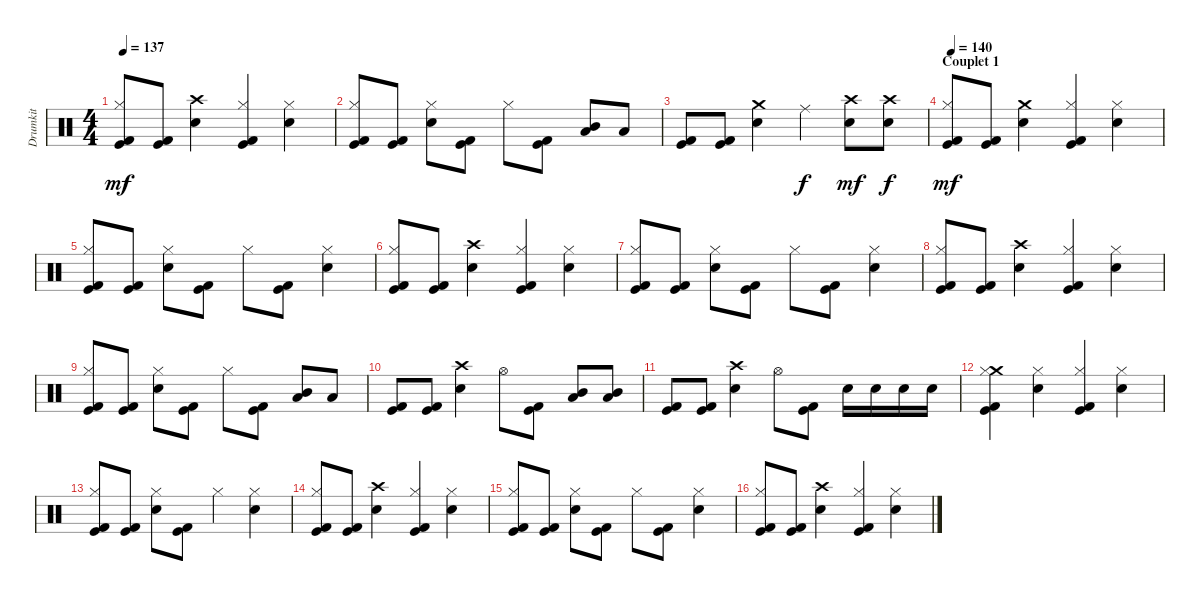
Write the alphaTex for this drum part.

\track ("Drumkit" "Drumkit") {instrument percussion}
\staff {score}
\articulation defaults
\ts (4 4)
\tempo 137
\clef neutral
\ks c
("Kick (hit) 2" "Hi-Hat (closed)" "Kick (hit)").8{dy mf} ("Kick (hit) 2" "Kick (hit)").8 ("Crash high (hit)" "Snare (hit) 2").4 ("Kick (hit) 2" "Hi-Hat (closed)" "Kick (hit)").4 ("Hi-Hat (closed)" "Snare (hit) 2").4 |
("Kick (hit) 2" "Hi-Hat (closed)" "Kick (hit)").8 ("Kick (hit) 2" "Kick (hit)").8 ("Hi-Hat (closed)" "Snare (hit) 2").8 ("Kick (hit) 2" "Kick (hit)").8 "Hi-Hat (closed)".8 ("Kick (hit) 2" "Kick (hit)").8 ("Mid Tom (hit)" "Low Tom (hit)").8 "Low Tom (hit)".8 |
("Kick (hit) 2" "Kick (hit)").8 ("Kick (hit) 2" "Kick (hit)").8 ("Crash medium (hit)" "Snare (hit) 2").4 "Ride (middle)".4{dy f} ("Crash high (hit)" "Snare (hit) 2").8{dy mf} ("Crash high (hit)" "Snare (hit) 2").8{dy f} |
\section ("" "Couplet 1")
\tempo 140
("Kick (hit) 2" "Hi-Hat (closed)" "Kick (hit)").8{dy mf} ("Kick (hit) 2" "Kick (hit)").8 ("Crash medium (hit)" "Snare (hit) 2").4 ("Kick (hit) 2" "Hi-Hat (closed)" "Kick (hit)").4 ("Hi-Hat (closed)" "Snare (hit) 2").4 |
("Kick (hit) 2" "Hi-Hat (closed)" "Kick (hit)").8 ("Kick (hit) 2" "Kick (hit)").8 ("Hi-Hat (closed)" "Snare (hit) 2").8 ("Kick (hit) 2" "Kick (hit)").8 "Hi-Hat (closed)".8 ("Kick (hit) 2" "Kick (hit)").8 ("Hi-Hat (closed)" "Snare (hit) 2").4 |
("Kick (hit) 2" "Hi-Hat (closed)" "Kick (hit)").8 ("Kick (hit) 2" "Kick (hit)").8 ("Crash high (hit)" "Snare (hit) 2").4 ("Kick (hit) 2" "Hi-Hat (closed)" "Kick (hit)").4 ("Hi-Hat (closed)" "Snare (hit) 2").4 |
("Kick (hit) 2" "Hi-Hat (closed)" "Kick (hit)").8 ("Kick (hit) 2" "Kick (hit)").8 ("Hi-Hat (closed)" "Snare (hit) 2").8 ("Kick (hit) 2" "Kick (hit)").8 "Hi-Hat (closed)".8 ("Kick (hit) 2" "Kick (hit)").8 ("Hi-Hat (closed)" "Snare (hit) 2").4 |
("Kick (hit) 2" "Hi-Hat (closed)" "Kick (hit)").8 ("Kick (hit) 2" "Kick (hit)").8 ("Crash high (hit)" "Snare (hit) 2").4 ("Kick (hit) 2" "Hi-Hat (closed)" "Kick (hit)").4 ("Hi-Hat (closed)" "Snare (hit) 2").4 |
("Kick (hit) 2" "Hi-Hat (closed)" "Kick (hit)").8 ("Kick (hit) 2" "Kick (hit)").8 ("Hi-Hat (closed)" "Snare (hit) 2").8 ("Kick (hit) 2" "Kick (hit)").8 "Hi-Hat (closed)".8 ("Kick (hit) 2" "Kick (hit)").8 ("Mid Tom (hit)" "Low Tom (hit)").8 "Low Tom (hit)".8 |
("Kick (hit) 2" "Kick (hit)").8 ("Kick (hit) 2" "Kick (hit)").8 ("Crash high (hit)" "Snare (hit) 2").4 "Hi-Hat (open)".8 ("Kick (hit) 2" "Kick (hit)").8 ("Mid Tom (hit)" "Low Tom (hit)").8 ("Mid Tom (hit)" "Low Tom (hit)").8 |
("Kick (hit) 2" "Kick (hit)").8 ("Kick (hit) 2" "Kick (hit)").8 ("Crash high (hit)" "Snare (hit) 2").4 "Hi-Hat (open)".8 ("Kick (hit) 2" "Kick (hit)").8 "Snare (hit) 2".16 "Snare (hit) 2".16 "Snare (hit) 2".16 "Snare (hit) 2".16 |
("Crash medium (hit)" "Hi-Hat (closed)" "Kick (hit) 2" "Kick (hit)").4 ("Hi-Hat (closed)" "Snare (hit) 2").4 ("Kick (hit) 2" "Hi-Hat (closed)" "Kick (hit)").4 ("Hi-Hat (closed)" "Snare (hit) 2").4 |
("Kick (hit) 2" "Hi-Hat (closed)" "Kick (hit)").8 ("Kick (hit) 2" "Kick (hit)").8 ("Hi-Hat (closed)" "Snare (hit) 2").8 ("Kick (hit) 2" "Kick (hit)").8 "Hi-Hat (closed)".4 ("Hi-Hat (closed)" "Snare (hit) 2").4 |
("Kick (hit) 2" "Hi-Hat (closed)" "Kick (hit)").8 ("Kick (hit) 2" "Kick (hit)").8 ("Crash high (hit)" "Snare (hit) 2").4 ("Kick (hit) 2" "Hi-Hat (closed)" "Kick (hit)").4 ("Hi-Hat (closed)" "Snare (hit) 2").4 |
("Kick (hit) 2" "Hi-Hat (closed)" "Kick (hit)").8 ("Kick (hit) 2" "Kick (hit)").8 ("Hi-Hat (closed)" "Snare (hit) 2").8 ("Kick (hit) 2" "Kick (hit)").8 "Hi-Hat (closed)".8 ("Kick (hit) 2" "Kick (hit)").8 ("Hi-Hat (closed)" "Snare (hit) 2").4 |
("Kick (hit) 2" "Hi-Hat (closed)" "Kick (hit)").8 ("Kick (hit) 2" "Kick (hit)").8 ("Crash high (hit)" "Snare (hit) 2").4 ("Kick (hit) 2" "Hi-Hat (closed)" "Kick (hit)").4 ("Hi-Hat (closed)" "Snare (hit) 2").4
